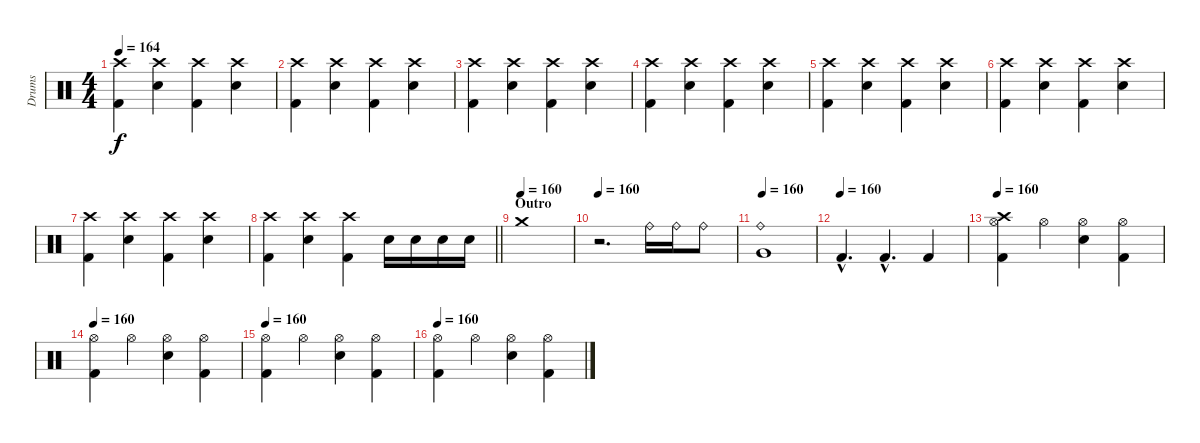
\track ("Drums" "Drums") {instrument percussion}
\staff {score}
\articulation defaults
\ts (4 4)
\tempo 164
\clef neutral
\ks c
("Crash high (hit)" "Kick (hit) 2").4{dy f} ("Crash high (hit)" "Snare (hit) 2").4 ("Crash high (hit)" "Kick (hit) 2").4 ("Crash high (hit)" "Snare (hit) 2").4 |
("Crash high (hit)" "Kick (hit) 2").4 ("Crash high (hit)" "Snare (hit) 2").4 ("Crash high (hit)" "Kick (hit) 2").4 ("Crash high (hit)" "Snare (hit) 2").4 |
("Crash high (hit)" "Kick (hit) 2").4 ("Crash high (hit)" "Snare (hit) 2").4 ("Crash high (hit)" "Kick (hit) 2").4 ("Crash high (hit)" "Snare (hit) 2").4 |
("Crash high (hit)" "Kick (hit) 2").4 ("Crash high (hit)" "Snare (hit) 2").4 ("Crash high (hit)" "Kick (hit) 2").4 ("Crash high (hit)" "Snare (hit) 2").4 |
("Crash high (hit)" "Kick (hit) 2").4 ("Crash high (hit)" "Snare (hit) 2").4 ("Crash high (hit)" "Kick (hit) 2").4 ("Crash high (hit)" "Snare (hit) 2").4 |
("Crash high (hit)" "Kick (hit) 2").4 ("Crash high (hit)" "Snare (hit) 2").4 ("Crash high (hit)" "Kick (hit) 2").4 ("Crash high (hit)" "Snare (hit) 2").4 |
("Crash high (hit)" "Kick (hit) 2").4 ("Crash high (hit)" "Snare (hit) 2").4 ("Crash high (hit)" "Kick (hit) 2").4 ("Crash high (hit)" "Snare (hit) 2").4 |
\barLineRight lightlight
("Crash high (hit)" "Kick (hit) 2").4 ("Crash high (hit)" "Snare (hit) 2").4 ("Crash high (hit)" "Kick (hit) 2").4 "Snare (hit) 2".16 "Snare (hit) 2".16 "Snare (hit) 2".16 "Snare (hit) 2".16 |
\section ("" "Outro")
\tempo (160)
"Crash medium (hit)".1 |
\tempo 160
r.2{d} "Ride (bell)".16 "Ride (bell)".16 "Ride (bell)".8 |
\tempo 160
("Ride (bell)" "Very Low Tom (hit)").1 |
\tempo (160)
"Kick (hit) 2"{hac}.4{d} "Kick (hit) 2"{hac}.4{d} "Kick (hit) 2".4 |
\tempo 160
("Crash high (hit)" "Hi-Hat (open)" "Kick (hit) 2").4 "Hi-Hat (open)".4 ("Hi-Hat (open)" "Snare (hit) 2").4 ("Hi-Hat (open)" "Kick (hit) 2").4 |
\tempo 160
("Hi-Hat (open)" "Kick (hit) 2").4 "Hi-Hat (open)".4 ("Hi-Hat (open)" "Snare (hit) 2").4 ("Hi-Hat (open)" "Kick (hit) 2").4 |
\tempo 160
("Hi-Hat (open)" "Kick (hit) 2").4 "Hi-Hat (open)".4 ("Hi-Hat (open)" "Snare (hit) 2").4 ("Hi-Hat (open)" "Kick (hit) 2").4 |
\tempo 160
("Hi-Hat (open)" "Kick (hit) 2").4 "Hi-Hat (open)".4 ("Hi-Hat (open)" "Snare (hit) 2").4 ("Hi-Hat (open)" "Kick (hit) 2").4
